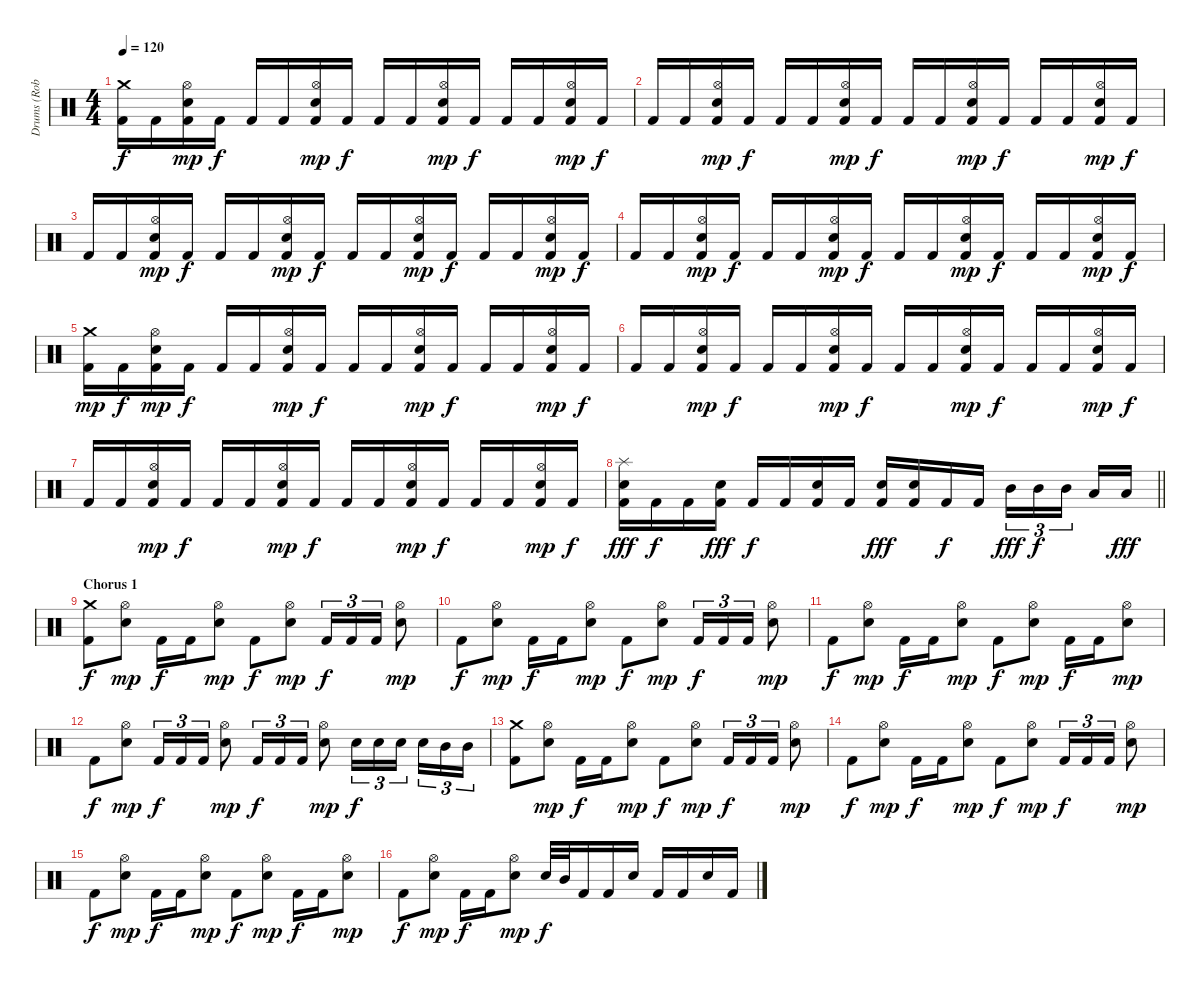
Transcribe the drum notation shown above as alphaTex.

\track ("Drums (Roberto Cappa)" "Drums (Rob") {instrument percussion}
\staff {score}
\articulation defaults
\ts (4 4)
\tempo 120
\clef neutral
\ks c
("Crash medium (hit)" "Kick (hit) 2").16{dy f} "Kick (hit) 2".16 ("Hi-Hat (open)" "Kick (hit) 2" "Electric Snare (hit)").16{dy mp} "Kick (hit) 2".16{dy f} "Kick (hit) 2".16 "Kick (hit) 2".16 ("Hi-Hat (open)" "Kick (hit) 2" "Electric Snare (hit)").16{dy mp} "Kick (hit) 2".16{dy f} "Kick (hit) 2".16 "Kick (hit) 2".16 ("Hi-Hat (open)" "Kick (hit) 2" "Electric Snare (hit)").16{dy mp} "Kick (hit) 2".16{dy f} "Kick (hit) 2".16 "Kick (hit) 2".16 ("Hi-Hat (open)" "Kick (hit) 2" "Electric Snare (hit)").16{dy mp} "Kick (hit) 2".16{dy f} |
"Kick (hit) 2".16 "Kick (hit) 2".16 ("Hi-Hat (open)" "Kick (hit) 2" "Electric Snare (hit)").16{dy mp} "Kick (hit) 2".16{dy f} "Kick (hit) 2".16 "Kick (hit) 2".16 ("Hi-Hat (open)" "Kick (hit) 2" "Electric Snare (hit)").16{dy mp} "Kick (hit) 2".16{dy f} "Kick (hit) 2".16 "Kick (hit) 2".16 ("Hi-Hat (open)" "Kick (hit) 2" "Electric Snare (hit)").16{dy mp} "Kick (hit) 2".16{dy f} "Kick (hit) 2".16 "Kick (hit) 2".16 ("Hi-Hat (open)" "Kick (hit) 2" "Electric Snare (hit)").16{dy mp} "Kick (hit) 2".16{dy f} |
"Kick (hit) 2".16 "Kick (hit) 2".16 ("Hi-Hat (open)" "Kick (hit) 2" "Electric Snare (hit)").16{dy mp} "Kick (hit) 2".16{dy f} "Kick (hit) 2".16 "Kick (hit) 2".16 ("Hi-Hat (open)" "Kick (hit) 2" "Electric Snare (hit)").16{dy mp} "Kick (hit) 2".16{dy f} "Kick (hit) 2".16 "Kick (hit) 2".16 ("Hi-Hat (open)" "Kick (hit) 2" "Electric Snare (hit)").16{dy mp} "Kick (hit) 2".16{dy f} "Kick (hit) 2".16 "Kick (hit) 2".16 ("Hi-Hat (open)" "Kick (hit) 2" "Electric Snare (hit)").16{dy mp} "Kick (hit) 2".16{dy f} |
"Kick (hit) 2".16 "Kick (hit) 2".16 ("Hi-Hat (open)" "Kick (hit) 2" "Electric Snare (hit)").16{dy mp} "Kick (hit) 2".16{dy f} "Kick (hit) 2".16 "Kick (hit) 2".16 ("Hi-Hat (open)" "Kick (hit) 2" "Electric Snare (hit)").16{dy mp} "Kick (hit) 2".16{dy f} "Kick (hit) 2".16 "Kick (hit) 2".16 ("Hi-Hat (open)" "Kick (hit) 2" "Electric Snare (hit)").16{dy mp} "Kick (hit) 2".16{dy f} "Kick (hit) 2".16 "Kick (hit) 2".16 ("Hi-Hat (open)" "Kick (hit) 2" "Electric Snare (hit)").16{dy mp} "Kick (hit) 2".16{dy f} |
("Crash medium (hit)" "Kick (hit) 2").16{dy mp} "Kick (hit) 2".16{dy f} ("Hi-Hat (open)" "Kick (hit) 2" "Electric Snare (hit)").16{dy mp} "Kick (hit) 2".16{dy f} "Kick (hit) 2".16 "Kick (hit) 2".16 ("Hi-Hat (open)" "Kick (hit) 2" "Electric Snare (hit)").16{dy mp} "Kick (hit) 2".16{dy f} "Kick (hit) 2".16 "Kick (hit) 2".16 ("Hi-Hat (open)" "Kick (hit) 2" "Electric Snare (hit)").16{dy mp} "Kick (hit) 2".16{dy f} "Kick (hit) 2".16 "Kick (hit) 2".16 ("Hi-Hat (open)" "Kick (hit) 2" "Electric Snare (hit)").16{dy mp} "Kick (hit) 2".16{dy f} |
"Kick (hit) 2".16 "Kick (hit) 2".16 ("Hi-Hat (open)" "Kick (hit) 2" "Electric Snare (hit)").16{dy mp} "Kick (hit) 2".16{dy f} "Kick (hit) 2".16 "Kick (hit) 2".16 ("Hi-Hat (open)" "Kick (hit) 2" "Electric Snare (hit)").16{dy mp} "Kick (hit) 2".16{dy f} "Kick (hit) 2".16 "Kick (hit) 2".16 ("Hi-Hat (open)" "Kick (hit) 2" "Electric Snare (hit)").16{dy mp} "Kick (hit) 2".16{dy f} "Kick (hit) 2".16 "Kick (hit) 2".16 ("Hi-Hat (open)" "Kick (hit) 2" "Electric Snare (hit)").16{dy mp} "Kick (hit) 2".16{dy f} |
"Kick (hit) 2".16 "Kick (hit) 2".16 ("Hi-Hat (open)" "Kick (hit) 2" "Electric Snare (hit)").16{dy mp} "Kick (hit) 2".16{dy f} "Kick (hit) 2".16 "Kick (hit) 2".16 ("Hi-Hat (open)" "Kick (hit) 2" "Electric Snare (hit)").16{dy mp} "Kick (hit) 2".16{dy f} "Kick (hit) 2".16 "Kick (hit) 2".16 ("Hi-Hat (open)" "Kick (hit) 2" "Electric Snare (hit)").16{dy mp} "Kick (hit) 2".16{dy f} "Kick (hit) 2".16 "Kick (hit) 2".16 ("Hi-Hat (open)" "Kick (hit) 2" "Electric Snare (hit)").16{dy mp} "Kick (hit) 2".16{dy f} |
\barLineRight lightlight
("Splash (hit)" "Kick (hit) 2" "Electric Snare (hit)").16{dy fff} "Kick (hit) 2".16{dy f} "Kick (hit) 2".16 ("Kick (hit) 2" "Electric Snare (hit)").16{dy fff} "Kick (hit) 2".16{dy f} "Kick (hit) 2".16 ("Kick (hit) 2" "Electric Snare (hit)").16 "Kick (hit) 2".16 ("Kick (hit) 2" "Electric Snare (hit)").16{dy fff} ("Kick (hit) 2" "Electric Snare (hit)").16 "Kick (hit) 2".16{dy f} "Kick (hit) 2".16 "Mid Tom (hit)".16{tu (3 2) dy fff} "Mid Tom (hit)".16{tu (3 2) dy f} "Mid Tom (hit)".16{tu (3 2) beam splitsecondary} "Low Tom (hit)".16 "Low Tom (hit)".16{dy fff} |
\section ("" "Chorus 1")
("Crash medium (hit)" "Kick (hit) 2").8{dy f} ("Hi-Hat (open)" "Electric Snare (hit)").8{dy mp} "Kick (hit) 2".16{dy f} "Kick (hit) 2".16 ("Hi-Hat (open)" "Electric Snare (hit)").8{dy mp} "Kick (hit) 2".8{dy f} ("Hi-Hat (open)" "Electric Snare (hit)").8{dy mp} "Kick (hit) 2".16{tu (3 2) dy f} "Kick (hit) 2".16{tu (3 2)} "Kick (hit) 2".16{tu (3 2)} ("Hi-Hat (open)" "Electric Snare (hit)").8{dy mp} |
"Kick (hit) 2".8{dy f} ("Hi-Hat (open)" "Electric Snare (hit)").8{dy mp} "Kick (hit) 2".16{dy f} "Kick (hit) 2".16 ("Hi-Hat (open)" "Electric Snare (hit)").8{dy mp} "Kick (hit) 2".8{dy f} ("Hi-Hat (open)" "Electric Snare (hit)").8{dy mp} "Kick (hit) 2".16{tu (3 2) dy f} "Kick (hit) 2".16{tu (3 2)} "Kick (hit) 2".16{tu (3 2)} ("Hi-Hat (open)" "Electric Snare (hit)").8{dy mp} |
"Kick (hit) 2".8{dy f} ("Hi-Hat (open)" "Electric Snare (hit)").8{dy mp} "Kick (hit) 2".16{dy f} "Kick (hit) 2".16 ("Hi-Hat (open)" "Electric Snare (hit)").8{dy mp} "Kick (hit) 2".8{dy f} ("Hi-Hat (open)" "Electric Snare (hit)").8{dy mp} "Kick (hit) 2".16{dy f} "Kick (hit) 2".16 ("Hi-Hat (open)" "Electric Snare (hit)").8{dy mp} |
"Kick (hit) 2".8{dy f} ("Hi-Hat (open)" "Electric Snare (hit)").8{dy mp} "Kick (hit) 2".16{tu (3 2) dy f} "Kick (hit) 2".16{tu (3 2)} "Kick (hit) 2".16{tu (3 2)} ("Hi-Hat (open)" "Electric Snare (hit)").8{dy mp} "Kick (hit) 2".16{tu (3 2) dy f} "Kick (hit) 2".16{tu (3 2)} "Kick (hit) 2".16{tu (3 2)} ("Hi-Hat (open)" "Electric Snare (hit)").8{dy mp} "Electric Snare (hit)".16{tu (3 2) dy f} "Electric Snare (hit)".16{tu (3 2)} "Electric Snare (hit)".16{tu (3 2) beam splitsecondary} "Electric Snare (hit)".16{tu (3 2)} "Mid Tom (hit)".16{tu (3 2)} "Mid Tom (hit)".16{tu (3 2)} |
("Crash medium (hit)" "Kick (hit) 2").8 ("Hi-Hat (open)" "Electric Snare (hit)").8{dy mp} "Kick (hit) 2".16{dy f} "Kick (hit) 2".16 ("Hi-Hat (open)" "Electric Snare (hit)").8{dy mp} "Kick (hit) 2".8{dy f} ("Hi-Hat (open)" "Electric Snare (hit)").8{dy mp} "Kick (hit) 2".16{tu (3 2) dy f} "Kick (hit) 2".16{tu (3 2)} "Kick (hit) 2".16{tu (3 2)} ("Hi-Hat (open)" "Electric Snare (hit)").8{dy mp} |
"Kick (hit) 2".8{dy f} ("Hi-Hat (open)" "Electric Snare (hit)").8{dy mp} "Kick (hit) 2".16{dy f} "Kick (hit) 2".16 ("Hi-Hat (open)" "Electric Snare (hit)").8{dy mp} "Kick (hit) 2".8{dy f} ("Hi-Hat (open)" "Electric Snare (hit)").8{dy mp} "Kick (hit) 2".16{tu (3 2) dy f} "Kick (hit) 2".16{tu (3 2)} "Kick (hit) 2".16{tu (3 2)} ("Hi-Hat (open)" "Electric Snare (hit)").8{dy mp} |
"Kick (hit) 2".8{dy f} ("Hi-Hat (open)" "Electric Snare (hit)").8{dy mp} "Kick (hit) 2".16{dy f} "Kick (hit) 2".16 ("Hi-Hat (open)" "Electric Snare (hit)").8{dy mp} "Kick (hit) 2".8{dy f} ("Hi-Hat (open)" "Electric Snare (hit)").8{dy mp} "Kick (hit) 2".16{dy f} "Kick (hit) 2".16 ("Hi-Hat (open)" "Electric Snare (hit)").8{dy mp} |
"Kick (hit) 2".8{dy f} ("Hi-Hat (open)" "Electric Snare (hit)").8{dy mp} "Kick (hit) 2".16{dy f} "Kick (hit) 2".16 ("Hi-Hat (open)" "Electric Snare (hit)").8{dy mp} "Electric Snare (hit)".32{dy f} "Mid Tom (hit)".32 "Kick (hit) 2".16 "Kick (hit) 2".16 "Electric Snare (hit)".16 "Kick (hit) 2".16 "Kick (hit) 2".16 "Electric Snare (hit)".16 "Kick (hit) 2".16
